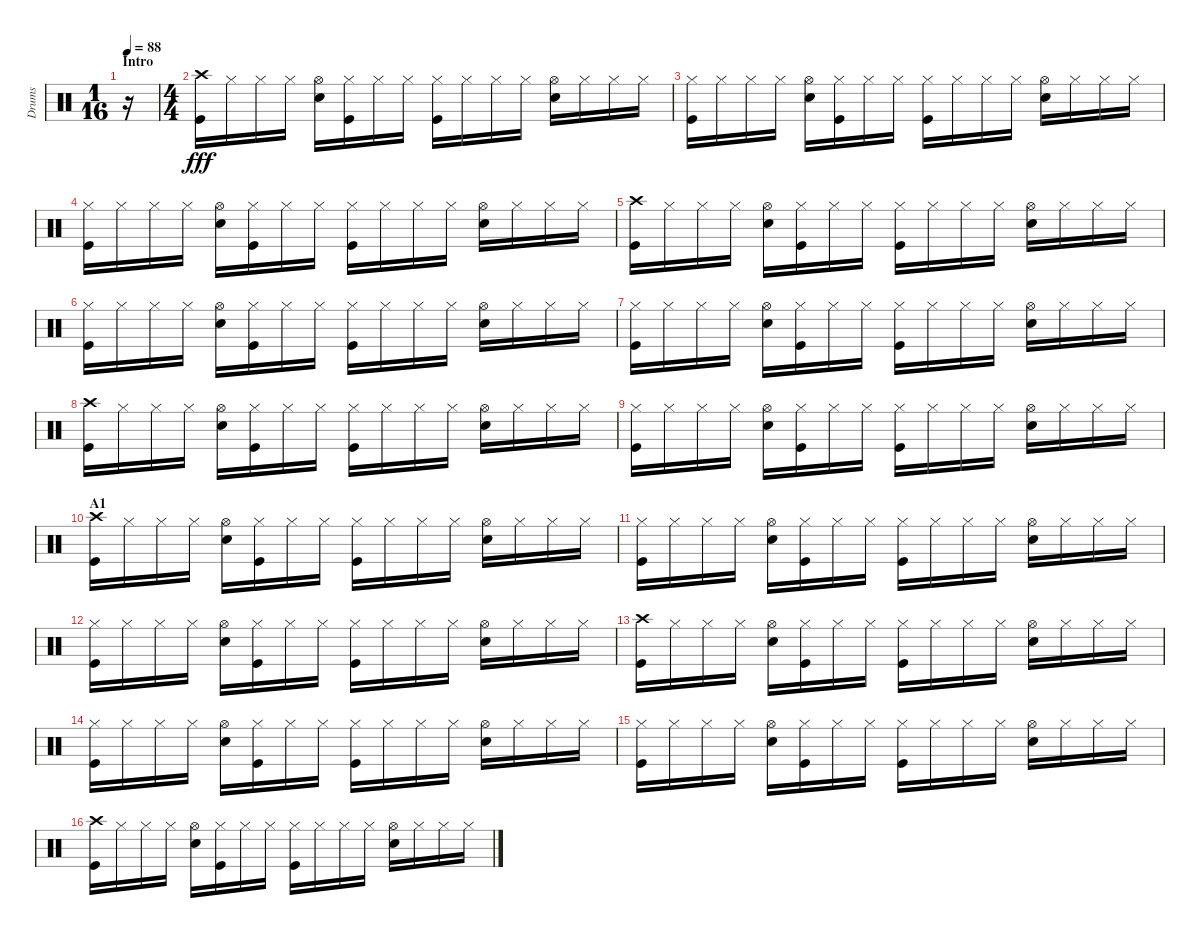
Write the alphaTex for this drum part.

\track ("Drums" "Drums") {instrument percussion}
\staff {score}
\articulation defaults
\ts (1 16)
\section ("" "Intro")
\tempo 88
\clef neutral
\ks c
r.16{dy fff} |
\ts (4 4)
("Crash high (hit)" "Kick (hit)").16 "Hi-Hat (closed)".16 "Hi-Hat (closed)".16 "Hi-Hat (closed)".16 ("Hi-Hat (open)" "Snare (hit) 2").16 ("Hi-Hat (closed)" "Kick (hit)").16 "Hi-Hat (closed)".16 "Hi-Hat (closed)".16 ("Hi-Hat (closed)" "Kick (hit)").16 "Hi-Hat (closed)".16 "Hi-Hat (closed)".16 "Hi-Hat (closed)".16 ("Hi-Hat (open)" "Snare (hit) 2").16 "Hi-Hat (closed)".16 "Hi-Hat (closed)".16 "Hi-Hat (closed)".16 |
("Hi-Hat (closed)" "Kick (hit)").16 "Hi-Hat (closed)".16 "Hi-Hat (closed)".16 "Hi-Hat (closed)".16 ("Hi-Hat (open)" "Snare (hit) 2").16 ("Hi-Hat (closed)" "Kick (hit)").16 "Hi-Hat (closed)".16 "Hi-Hat (closed)".16 ("Hi-Hat (closed)" "Kick (hit)").16 "Hi-Hat (closed)".16 "Hi-Hat (closed)".16 "Hi-Hat (closed)".16 ("Hi-Hat (open)" "Snare (hit) 2").16 "Hi-Hat (closed)".16 "Hi-Hat (closed)".16 "Hi-Hat (closed)".16 |
("Hi-Hat (closed)" "Kick (hit)").16 "Hi-Hat (closed)".16 "Hi-Hat (closed)".16 "Hi-Hat (closed)".16 ("Hi-Hat (open)" "Snare (hit) 2").16 ("Hi-Hat (closed)" "Kick (hit)").16 "Hi-Hat (closed)".16 "Hi-Hat (closed)".16 ("Hi-Hat (closed)" "Kick (hit)").16 "Hi-Hat (closed)".16 "Hi-Hat (closed)".16 "Hi-Hat (closed)".16 ("Hi-Hat (open)" "Snare (hit) 2").16 "Hi-Hat (closed)".16 "Hi-Hat (closed)".16 "Hi-Hat (closed)".16 |
("Crash high (hit)" "Kick (hit)").16 "Hi-Hat (closed)".16 "Hi-Hat (closed)".16 "Hi-Hat (closed)".16 ("Hi-Hat (open)" "Snare (hit) 2").16 ("Hi-Hat (closed)" "Kick (hit)").16 "Hi-Hat (closed)".16 "Hi-Hat (closed)".16 ("Hi-Hat (closed)" "Kick (hit)").16 "Hi-Hat (closed)".16 "Hi-Hat (closed)".16 "Hi-Hat (closed)".16 ("Hi-Hat (open)" "Snare (hit) 2").16 "Hi-Hat (closed)".16 "Hi-Hat (closed)".16 "Hi-Hat (closed)".16 |
("Hi-Hat (closed)" "Kick (hit)").16 "Hi-Hat (closed)".16 "Hi-Hat (closed)".16 "Hi-Hat (closed)".16 ("Hi-Hat (open)" "Snare (hit) 2").16 ("Hi-Hat (closed)" "Kick (hit)").16 "Hi-Hat (closed)".16 "Hi-Hat (closed)".16 ("Hi-Hat (closed)" "Kick (hit)").16 "Hi-Hat (closed)".16 "Hi-Hat (closed)".16 "Hi-Hat (closed)".16 ("Hi-Hat (open)" "Snare (hit) 2").16 "Hi-Hat (closed)".16 "Hi-Hat (closed)".16 "Hi-Hat (closed)".16 |
("Hi-Hat (closed)" "Kick (hit)").16 "Hi-Hat (closed)".16 "Hi-Hat (closed)".16 "Hi-Hat (closed)".16 ("Hi-Hat (open)" "Snare (hit) 2").16 ("Hi-Hat (closed)" "Kick (hit)").16 "Hi-Hat (closed)".16 "Hi-Hat (closed)".16 ("Hi-Hat (closed)" "Kick (hit)").16 "Hi-Hat (closed)".16 "Hi-Hat (closed)".16 "Hi-Hat (closed)".16 ("Hi-Hat (open)" "Snare (hit) 2").16 "Hi-Hat (closed)".16 "Hi-Hat (closed)".16 "Hi-Hat (closed)".16 |
("Crash high (hit)" "Kick (hit)").16 "Hi-Hat (closed)".16 "Hi-Hat (closed)".16 "Hi-Hat (closed)".16 ("Hi-Hat (open)" "Snare (hit) 2").16 ("Hi-Hat (closed)" "Kick (hit)").16 "Hi-Hat (closed)".16 "Hi-Hat (closed)".16 ("Hi-Hat (closed)" "Kick (hit)").16 "Hi-Hat (closed)".16 "Hi-Hat (closed)".16 "Hi-Hat (closed)".16 ("Hi-Hat (open)" "Snare (hit) 2").16 "Hi-Hat (closed)".16 "Hi-Hat (closed)".16 "Hi-Hat (closed)".16 |
("Hi-Hat (closed)" "Kick (hit)").16 "Hi-Hat (closed)".16 "Hi-Hat (closed)".16 "Hi-Hat (closed)".16 ("Hi-Hat (open)" "Snare (hit) 2").16 ("Hi-Hat (closed)" "Kick (hit)").16 "Hi-Hat (closed)".16 "Hi-Hat (closed)".16 ("Hi-Hat (closed)" "Kick (hit)").16 "Hi-Hat (closed)".16 "Hi-Hat (closed)".16 "Hi-Hat (closed)".16 ("Hi-Hat (open)" "Snare (hit) 2").16 "Hi-Hat (closed)".16 "Hi-Hat (closed)".16 "Hi-Hat (closed)".16 |
\section ("" "A1")
("Crash high (hit)" "Kick (hit)").16 "Hi-Hat (closed)".16 "Hi-Hat (closed)".16 "Hi-Hat (closed)".16 ("Hi-Hat (open)" "Snare (hit) 2").16 ("Hi-Hat (closed)" "Kick (hit)").16 "Hi-Hat (closed)".16 "Hi-Hat (closed)".16 ("Hi-Hat (closed)" "Kick (hit)").16 "Hi-Hat (closed)".16 "Hi-Hat (closed)".16 "Hi-Hat (closed)".16 ("Hi-Hat (open)" "Snare (hit) 2").16 "Hi-Hat (closed)".16 "Hi-Hat (closed)".16 "Hi-Hat (closed)".16 |
("Hi-Hat (closed)" "Kick (hit)").16 "Hi-Hat (closed)".16 "Hi-Hat (closed)".16 "Hi-Hat (closed)".16 ("Hi-Hat (open)" "Snare (hit) 2").16 ("Hi-Hat (closed)" "Kick (hit)").16 "Hi-Hat (closed)".16 "Hi-Hat (closed)".16 ("Hi-Hat (closed)" "Kick (hit)").16 "Hi-Hat (closed)".16 "Hi-Hat (closed)".16 "Hi-Hat (closed)".16 ("Hi-Hat (open)" "Snare (hit) 2").16 "Hi-Hat (closed)".16 "Hi-Hat (closed)".16 "Hi-Hat (closed)".16 |
("Hi-Hat (closed)" "Kick (hit)").16 "Hi-Hat (closed)".16 "Hi-Hat (closed)".16 "Hi-Hat (closed)".16 ("Hi-Hat (open)" "Snare (hit) 2").16 ("Hi-Hat (closed)" "Kick (hit)").16 "Hi-Hat (closed)".16 "Hi-Hat (closed)".16 ("Hi-Hat (closed)" "Kick (hit)").16 "Hi-Hat (closed)".16 "Hi-Hat (closed)".16 "Hi-Hat (closed)".16 ("Hi-Hat (open)" "Snare (hit) 2").16 "Hi-Hat (closed)".16 "Hi-Hat (closed)".16 "Hi-Hat (closed)".16 |
("Crash high (hit)" "Kick (hit)").16 "Hi-Hat (closed)".16 "Hi-Hat (closed)".16 "Hi-Hat (closed)".16 ("Hi-Hat (open)" "Snare (hit) 2").16 ("Hi-Hat (closed)" "Kick (hit)").16 "Hi-Hat (closed)".16 "Hi-Hat (closed)".16 ("Hi-Hat (closed)" "Kick (hit)").16 "Hi-Hat (closed)".16 "Hi-Hat (closed)".16 "Hi-Hat (closed)".16 ("Hi-Hat (open)" "Snare (hit) 2").16 "Hi-Hat (closed)".16 "Hi-Hat (closed)".16 "Hi-Hat (closed)".16 |
("Hi-Hat (closed)" "Kick (hit)").16 "Hi-Hat (closed)".16 "Hi-Hat (closed)".16 "Hi-Hat (closed)".16 ("Hi-Hat (open)" "Snare (hit) 2").16 ("Hi-Hat (closed)" "Kick (hit)").16 "Hi-Hat (closed)".16 "Hi-Hat (closed)".16 ("Hi-Hat (closed)" "Kick (hit)").16 "Hi-Hat (closed)".16 "Hi-Hat (closed)".16 "Hi-Hat (closed)".16 ("Hi-Hat (open)" "Snare (hit) 2").16 "Hi-Hat (closed)".16 "Hi-Hat (closed)".16 "Hi-Hat (closed)".16 |
("Hi-Hat (closed)" "Kick (hit)").16 "Hi-Hat (closed)".16 "Hi-Hat (closed)".16 "Hi-Hat (closed)".16 ("Hi-Hat (open)" "Snare (hit) 2").16 ("Hi-Hat (closed)" "Kick (hit)").16 "Hi-Hat (closed)".16 "Hi-Hat (closed)".16 ("Hi-Hat (closed)" "Kick (hit)").16 "Hi-Hat (closed)".16 "Hi-Hat (closed)".16 "Hi-Hat (closed)".16 ("Hi-Hat (open)" "Snare (hit) 2").16 "Hi-Hat (closed)".16 "Hi-Hat (closed)".16 "Hi-Hat (closed)".16 |
("Crash high (hit)" "Kick (hit)").16 "Hi-Hat (closed)".16 "Hi-Hat (closed)".16 "Hi-Hat (closed)".16 ("Hi-Hat (open)" "Snare (hit) 2").16 ("Hi-Hat (closed)" "Kick (hit)").16 "Hi-Hat (closed)".16 "Hi-Hat (closed)".16 ("Hi-Hat (closed)" "Kick (hit)").16 "Hi-Hat (closed)".16 "Hi-Hat (closed)".16 "Hi-Hat (closed)".16 ("Hi-Hat (open)" "Snare (hit) 2").16 "Hi-Hat (closed)".16 "Hi-Hat (closed)".16 "Hi-Hat (closed)".16
